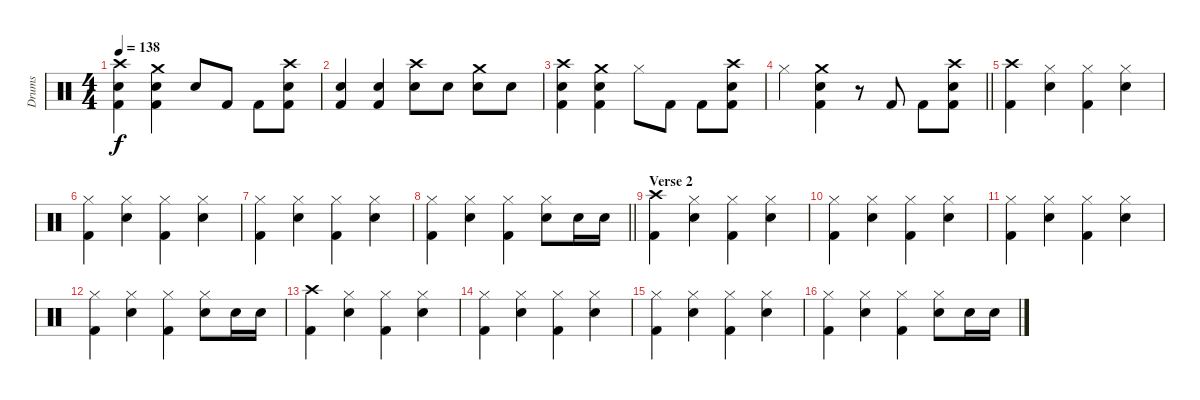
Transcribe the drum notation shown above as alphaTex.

\track ("Drums" "Drums") {instrument percussion}
\staff {score}
\articulation defaults
\ts (4 4)
\tempo 138
\clef neutral
\ks c
("Crash high (hit)" "Snare (hit) 2" "Kick (hit) 2").4{dy f} ("Crash medium (hit)" "Snare (hit) 2" "Kick (hit) 2").4 "Snare (hit) 2".8 "Kick (hit) 2".8 "Kick (hit) 2".8 ("Crash high (hit)" "Snare (hit) 2" "Kick (hit) 2").8 |
("Snare (hit) 2" "Kick (hit) 2").4 ("Snare (hit) 2" "Kick (hit) 2").4 ("Crash high (hit)" "Snare (hit) 2").8 "Snare (hit) 2".8 ("Crash medium (hit)" "Snare (hit) 2").8 "Snare (hit) 2".8 |
("Crash high (hit)" "Snare (hit) 2" "Kick (hit) 2").4 ("Crash medium (hit)" "Snare (hit) 2" "Kick (hit) 2").4 "Hi-Hat (closed)".8 "Kick (hit) 2".8 "Kick (hit) 2".8 ("Crash high (hit)" "Snare (hit) 2" "Kick (hit) 2").8 |
\barLineRight lightlight "Hi-Hat (closed)".4
("Crash medium (hit)" "Snare (hit) 2" "Kick (hit) 2").4 r.8 "Kick (hit) 2".8 "Kick (hit) 2".8 ("Crash high (hit)" "Snare (hit) 2" "Kick (hit) 2").8 |
("Crash high (hit)" "Kick (hit) 2").4 ("Snare (hit) 2" "Hi-Hat (closed)").4 ("Hi-Hat (closed)" "Kick (hit) 2").4 ("Snare (hit) 2" "Hi-Hat (closed)").4 |
("Hi-Hat (closed)" "Kick (hit) 2").4 ("Snare (hit) 2" "Hi-Hat (closed)").4 ("Hi-Hat (closed)" "Kick (hit) 2").4 ("Snare (hit) 2" "Hi-Hat (closed)").4 |
("Hi-Hat (closed)" "Kick (hit) 2").4 ("Snare (hit) 2" "Hi-Hat (closed)").4 ("Hi-Hat (closed)" "Kick (hit) 2").4 ("Snare (hit) 2" "Hi-Hat (closed)").4 |
\barLineRight lightlight
("Hi-Hat (closed)" "Kick (hit) 2").4 ("Snare (hit) 2" "Hi-Hat (closed)").4 ("Hi-Hat (closed)" "Kick (hit) 2").4 ("Snare (hit) 2" "Hi-Hat (closed)").8 "Snare (hit) 2".16 "Snare (hit) 2".16 |
\section ("" "Verse 2")
("Crash high (hit)" "Kick (hit) 2").4 ("Snare (hit) 2" "Hi-Hat (closed)").4 ("Hi-Hat (closed)" "Kick (hit) 2").4 ("Snare (hit) 2" "Hi-Hat (closed)").4 |
("Hi-Hat (closed)" "Kick (hit) 2").4 ("Snare (hit) 2" "Hi-Hat (closed)").4 ("Hi-Hat (closed)" "Kick (hit) 2").4 ("Snare (hit) 2" "Hi-Hat (closed)").4 |
("Hi-Hat (closed)" "Kick (hit) 2").4 ("Snare (hit) 2" "Hi-Hat (closed)").4 ("Hi-Hat (closed)" "Kick (hit) 2").4 ("Snare (hit) 2" "Hi-Hat (closed)").4 |
("Hi-Hat (closed)" "Kick (hit) 2").4 ("Snare (hit) 2" "Hi-Hat (closed)").4 ("Hi-Hat (closed)" "Kick (hit) 2").4 ("Snare (hit) 2" "Hi-Hat (closed)").8 "Snare (hit) 2".16 "Snare (hit) 2".16 |
("Crash high (hit)" "Kick (hit) 2").4 ("Snare (hit) 2" "Hi-Hat (closed)").4 ("Hi-Hat (closed)" "Kick (hit) 2").4 ("Snare (hit) 2" "Hi-Hat (closed)").4 |
("Hi-Hat (closed)" "Kick (hit) 2").4 ("Snare (hit) 2" "Hi-Hat (closed)").4 ("Hi-Hat (closed)" "Kick (hit) 2").4 ("Snare (hit) 2" "Hi-Hat (closed)").4 |
("Hi-Hat (closed)" "Kick (hit) 2").4 ("Snare (hit) 2" "Hi-Hat (closed)").4 ("Hi-Hat (closed)" "Kick (hit) 2").4 ("Snare (hit) 2" "Hi-Hat (closed)").4 |
("Hi-Hat (closed)" "Kick (hit) 2").4 ("Snare (hit) 2" "Hi-Hat (closed)").4 ("Hi-Hat (closed)" "Kick (hit) 2").4 ("Snare (hit) 2" "Hi-Hat (closed)").8 "Snare (hit) 2".16 "Snare (hit) 2".16
